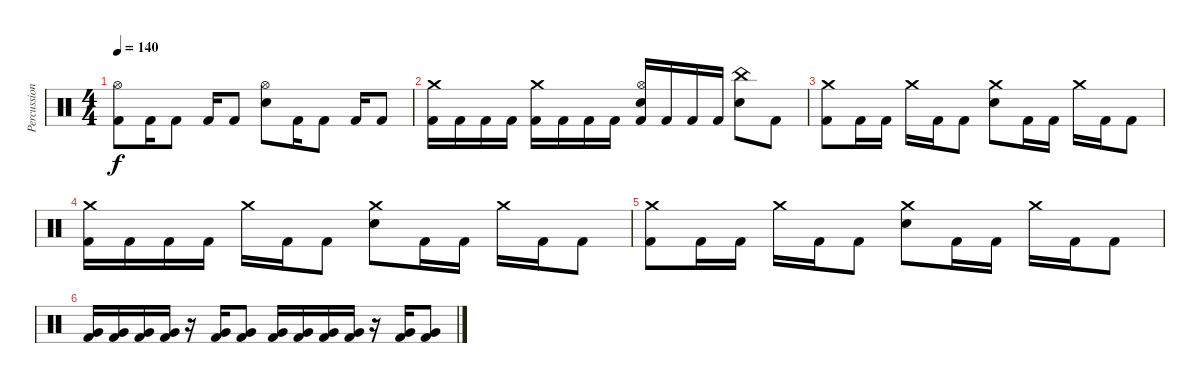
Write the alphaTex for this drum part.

\track ("Percussion" "Percussion") {instrument percussion}
\staff {score}
\articulation defaults
\ts (4 4)
\tempo 140
\clef neutral
\ks c
("Kick (hit) 2" "Hi-Hat (open)").8{dy f} "Kick (hit) 2".16 "Kick (hit) 2".8 "Kick (hit) 2".16 "Kick (hit) 2".8 ("Electric Snare (hit)" "Hi-Hat (open)").8 "Kick (hit) 2".16 "Kick (hit) 2".8 "Kick (hit) 2".16 "Kick (hit) 2".8 |
("Kick (hit) 2" "Crash medium (hit)").16 "Kick (hit) 2".16 "Kick (hit) 2".16 "Kick (hit) 2".16 ("Kick (hit) 2" "Crash medium (hit)").16 "Kick (hit) 2".16 "Kick (hit) 2".16 "Kick (hit) 2".16 ("Kick (hit) 2" "Electric Snare (hit)" "Hi-Hat (open)").16 "Kick (hit) 2".16 "Kick (hit) 2".16 "Kick (hit) 2".16 ("Electric Snare (hit)" "China (hit)").8 "Kick (hit) 2".8 |
("Kick (hit) 2" "Crash medium (hit)").8 "Kick (hit) 2".16 "Kick (hit) 2".16 "Crash medium (hit)".16 "Kick (hit) 2".16 "Kick (hit) 2".8 ("Electric Snare (hit)" "Crash medium (hit)").8 "Kick (hit) 2".16 "Kick (hit) 2".16 "Crash medium (hit)".16 "Kick (hit) 2".16 "Kick (hit) 2".8 |
("Kick (hit) 2" "Crash medium (hit)").16 "Kick (hit) 2".16 "Kick (hit) 2".16 "Kick (hit) 2".16 "Crash medium (hit)".16 "Kick (hit) 2".16 "Kick (hit) 2".8 ("Electric Snare (hit)" "Crash medium (hit)").8 "Kick (hit) 2".16 "Kick (hit) 2".16 "Crash medium (hit)".16 "Kick (hit) 2".16 "Kick (hit) 2".8 |
("Kick (hit) 2" "Crash medium (hit)").8 "Kick (hit) 2".16 "Kick (hit) 2".16 "Crash medium (hit)".16 "Kick (hit) 2".16 "Kick (hit) 2".8 ("Electric Snare (hit)" "Crash medium (hit)").8 "Kick (hit) 2".16 "Kick (hit) 2".16 "Crash medium (hit)".16 "Kick (hit) 2".16 "Kick (hit) 2".8 |
("Kick (hit) 2" "Very Low Tom (hit)").16 ("Kick (hit) 2" "Very Low Tom (hit)").16 ("Kick (hit) 2" "Very Low Tom (hit)").16 ("Kick (hit) 2" "Very Low Tom (hit)").16 r.16 ("Kick (hit) 2" "Very Low Tom (hit)").16 ("Kick (hit) 2" "Very Low Tom (hit)").8 ("Kick (hit) 2" "Very Low Tom (hit)").16 ("Kick (hit) 2" "Very Low Tom (hit)").16 ("Kick (hit) 2" "Very Low Tom (hit)").16 ("Kick (hit) 2" "Very Low Tom (hit)").16 r.16 ("Kick (hit) 2" "Very Low Tom (hit)").16 ("Kick (hit) 2" "Very Low Tom (hit)").8
